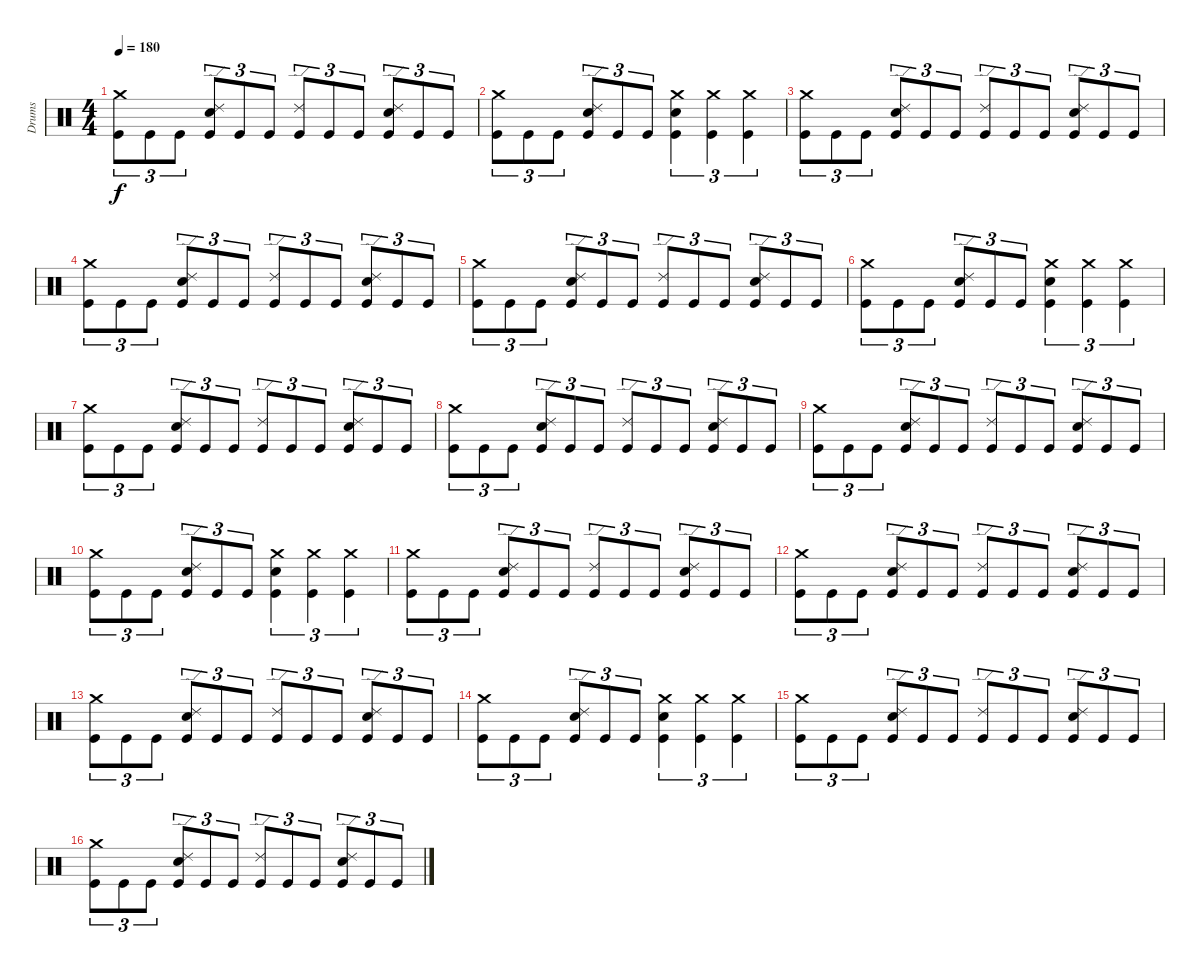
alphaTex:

\track ("Drums" "Drums") {instrument percussion}
\staff {score}
\articulation defaults
\ts (4 4)
\tempo 180
\clef neutral
\ks c
("Crash medium (hit)" "Kick (hit)").8{tu (3 2) dy f} "Kick (hit)".8{tu (3 2)} "Kick (hit)".8{tu (3 2)} ("Ride (edge) 2" "Snare (hit) 2" "Kick (hit)").8{tu (3 2)} "Kick (hit)".8{tu (3 2)} "Kick (hit)".8{tu (3 2)} ("Ride (edge) 2" "Kick (hit)").8{tu (3 2)} "Kick (hit)".8{tu (3 2)} "Kick (hit)".8{tu (3 2)} ("Ride (edge) 2" "Snare (hit) 2" "Kick (hit)").8{tu (3 2)} "Kick (hit)".8{tu (3 2)} "Kick (hit)".8{tu (3 2)} |
("Crash medium (hit)" "Kick (hit)").8{tu (3 2)} "Kick (hit)".8{tu (3 2)} "Kick (hit)".8{tu (3 2)} ("Ride (edge) 2" "Snare (hit) 2" "Kick (hit)").8{tu (3 2)} "Kick (hit)".8{tu (3 2)} "Kick (hit)".8{tu (3 2)} ("Crash medium (hit)" "Snare (hit) 2" "Kick (hit)").4{tu (3 2)} ("Crash medium (hit)" "Kick (hit)").4{tu (3 2)} ("Crash medium (hit)" "Kick (hit)").4{tu (3 2)} |
("Crash medium (hit)" "Kick (hit)").8{tu (3 2)} "Kick (hit)".8{tu (3 2)} "Kick (hit)".8{tu (3 2)} ("Ride (edge) 2" "Snare (hit) 2" "Kick (hit)").8{tu (3 2)} "Kick (hit)".8{tu (3 2)} "Kick (hit)".8{tu (3 2)} ("Ride (edge) 2" "Kick (hit)").8{tu (3 2)} "Kick (hit)".8{tu (3 2)} "Kick (hit)".8{tu (3 2)} ("Ride (edge) 2" "Snare (hit) 2" "Kick (hit)").8{tu (3 2)} "Kick (hit)".8{tu (3 2)} "Kick (hit)".8{tu (3 2)} |
("Crash medium (hit)" "Kick (hit)").8{tu (3 2)} "Kick (hit)".8{tu (3 2)} "Kick (hit)".8{tu (3 2)} ("Ride (edge) 2" "Snare (hit) 2" "Kick (hit)").8{tu (3 2)} "Kick (hit)".8{tu (3 2)} "Kick (hit)".8{tu (3 2)} ("Ride (edge) 2" "Kick (hit)").8{tu (3 2)} "Kick (hit)".8{tu (3 2)} "Kick (hit)".8{tu (3 2)} ("Ride (edge) 2" "Snare (hit) 2" "Kick (hit)").8{tu (3 2)} "Kick (hit)".8{tu (3 2)} "Kick (hit)".8{tu (3 2)} |
("Crash medium (hit)" "Kick (hit)").8{tu (3 2)} "Kick (hit)".8{tu (3 2)} "Kick (hit)".8{tu (3 2)} ("Ride (edge) 2" "Snare (hit) 2" "Kick (hit)").8{tu (3 2)} "Kick (hit)".8{tu (3 2)} "Kick (hit)".8{tu (3 2)} ("Ride (edge) 2" "Kick (hit)").8{tu (3 2)} "Kick (hit)".8{tu (3 2)} "Kick (hit)".8{tu (3 2)} ("Ride (edge) 2" "Snare (hit) 2" "Kick (hit)").8{tu (3 2)} "Kick (hit)".8{tu (3 2)} "Kick (hit)".8{tu (3 2)} |
("Crash medium (hit)" "Kick (hit)").8{tu (3 2)} "Kick (hit)".8{tu (3 2)} "Kick (hit)".8{tu (3 2)} ("Ride (edge) 2" "Snare (hit) 2" "Kick (hit)").8{tu (3 2)} "Kick (hit)".8{tu (3 2)} "Kick (hit)".8{tu (3 2)} ("Crash medium (hit)" "Snare (hit) 2" "Kick (hit)").4{tu (3 2)} ("Crash medium (hit)" "Kick (hit)").4{tu (3 2)} ("Crash medium (hit)" "Kick (hit)").4{tu (3 2)} |
("Crash medium (hit)" "Kick (hit)").8{tu (3 2)} "Kick (hit)".8{tu (3 2)} "Kick (hit)".8{tu (3 2)} ("Ride (edge) 2" "Snare (hit) 2" "Kick (hit)").8{tu (3 2)} "Kick (hit)".8{tu (3 2)} "Kick (hit)".8{tu (3 2)} ("Ride (edge) 2" "Kick (hit)").8{tu (3 2)} "Kick (hit)".8{tu (3 2)} "Kick (hit)".8{tu (3 2)} ("Ride (edge) 2" "Snare (hit) 2" "Kick (hit)").8{tu (3 2)} "Kick (hit)".8{tu (3 2)} "Kick (hit)".8{tu (3 2)} |
("Crash medium (hit)" "Kick (hit)").8{tu (3 2)} "Kick (hit)".8{tu (3 2)} "Kick (hit)".8{tu (3 2)} ("Ride (edge) 2" "Snare (hit) 2" "Kick (hit)").8{tu (3 2)} "Kick (hit)".8{tu (3 2)} "Kick (hit)".8{tu (3 2)} ("Ride (edge) 2" "Kick (hit)").8{tu (3 2)} "Kick (hit)".8{tu (3 2)} "Kick (hit)".8{tu (3 2)} ("Ride (edge) 2" "Snare (hit) 2" "Kick (hit)").8{tu (3 2)} "Kick (hit)".8{tu (3 2)} "Kick (hit)".8{tu (3 2)} |
("Crash medium (hit)" "Kick (hit)").8{tu (3 2)} "Kick (hit)".8{tu (3 2)} "Kick (hit)".8{tu (3 2)} ("Ride (edge) 2" "Snare (hit) 2" "Kick (hit)").8{tu (3 2)} "Kick (hit)".8{tu (3 2)} "Kick (hit)".8{tu (3 2)} ("Ride (edge) 2" "Kick (hit)").8{tu (3 2)} "Kick (hit)".8{tu (3 2)} "Kick (hit)".8{tu (3 2)} ("Ride (edge) 2" "Snare (hit) 2" "Kick (hit)").8{tu (3 2)} "Kick (hit)".8{tu (3 2)} "Kick (hit)".8{tu (3 2)} |
("Crash medium (hit)" "Kick (hit)").8{tu (3 2)} "Kick (hit)".8{tu (3 2)} "Kick (hit)".8{tu (3 2)} ("Ride (edge) 2" "Snare (hit) 2" "Kick (hit)").8{tu (3 2)} "Kick (hit)".8{tu (3 2)} "Kick (hit)".8{tu (3 2)} ("Crash medium (hit)" "Snare (hit) 2" "Kick (hit)").4{tu (3 2)} ("Crash medium (hit)" "Kick (hit)").4{tu (3 2)} ("Crash medium (hit)" "Kick (hit)").4{tu (3 2)} |
("Crash medium (hit)" "Kick (hit)").8{tu (3 2)} "Kick (hit)".8{tu (3 2)} "Kick (hit)".8{tu (3 2)} ("Ride (edge) 2" "Snare (hit) 2" "Kick (hit)").8{tu (3 2)} "Kick (hit)".8{tu (3 2)} "Kick (hit)".8{tu (3 2)} ("Ride (edge) 2" "Kick (hit)").8{tu (3 2)} "Kick (hit)".8{tu (3 2)} "Kick (hit)".8{tu (3 2)} ("Ride (edge) 2" "Snare (hit) 2" "Kick (hit)").8{tu (3 2)} "Kick (hit)".8{tu (3 2)} "Kick (hit)".8{tu (3 2)} |
("Crash medium (hit)" "Kick (hit)").8{tu (3 2)} "Kick (hit)".8{tu (3 2)} "Kick (hit)".8{tu (3 2)} ("Ride (edge) 2" "Snare (hit) 2" "Kick (hit)").8{tu (3 2)} "Kick (hit)".8{tu (3 2)} "Kick (hit)".8{tu (3 2)} ("Ride (edge) 2" "Kick (hit)").8{tu (3 2)} "Kick (hit)".8{tu (3 2)} "Kick (hit)".8{tu (3 2)} ("Ride (edge) 2" "Snare (hit) 2" "Kick (hit)").8{tu (3 2)} "Kick (hit)".8{tu (3 2)} "Kick (hit)".8{tu (3 2)} |
("Crash medium (hit)" "Kick (hit)").8{tu (3 2)} "Kick (hit)".8{tu (3 2)} "Kick (hit)".8{tu (3 2)} ("Ride (edge) 2" "Snare (hit) 2" "Kick (hit)").8{tu (3 2)} "Kick (hit)".8{tu (3 2)} "Kick (hit)".8{tu (3 2)} ("Ride (edge) 2" "Kick (hit)").8{tu (3 2)} "Kick (hit)".8{tu (3 2)} "Kick (hit)".8{tu (3 2)} ("Ride (edge) 2" "Snare (hit) 2" "Kick (hit)").8{tu (3 2)} "Kick (hit)".8{tu (3 2)} "Kick (hit)".8{tu (3 2)} |
("Crash medium (hit)" "Kick (hit)").8{tu (3 2)} "Kick (hit)".8{tu (3 2)} "Kick (hit)".8{tu (3 2)} ("Ride (edge) 2" "Snare (hit) 2" "Kick (hit)").8{tu (3 2)} "Kick (hit)".8{tu (3 2)} "Kick (hit)".8{tu (3 2)} ("Crash medium (hit)" "Snare (hit) 2" "Kick (hit)").4{tu (3 2)} ("Crash medium (hit)" "Kick (hit)").4{tu (3 2)} ("Crash medium (hit)" "Kick (hit)").4{tu (3 2)} |
("Crash medium (hit)" "Kick (hit)").8{tu (3 2)} "Kick (hit)".8{tu (3 2)} "Kick (hit)".8{tu (3 2)} ("Ride (edge) 2" "Snare (hit) 2" "Kick (hit)").8{tu (3 2)} "Kick (hit)".8{tu (3 2)} "Kick (hit)".8{tu (3 2)} ("Ride (edge) 2" "Kick (hit)").8{tu (3 2)} "Kick (hit)".8{tu (3 2)} "Kick (hit)".8{tu (3 2)} ("Ride (edge) 2" "Snare (hit) 2" "Kick (hit)").8{tu (3 2)} "Kick (hit)".8{tu (3 2)} "Kick (hit)".8{tu (3 2)} |
("Crash medium (hit)" "Kick (hit)").8{tu (3 2)} "Kick (hit)".8{tu (3 2)} "Kick (hit)".8{tu (3 2)} ("Ride (edge) 2" "Snare (hit) 2" "Kick (hit)").8{tu (3 2)} "Kick (hit)".8{tu (3 2)} "Kick (hit)".8{tu (3 2)} ("Ride (edge) 2" "Kick (hit)").8{tu (3 2)} "Kick (hit)".8{tu (3 2)} "Kick (hit)".8{tu (3 2)} ("Ride (edge) 2" "Snare (hit) 2" "Kick (hit)").8{tu (3 2)} "Kick (hit)".8{tu (3 2)} "Kick (hit)".8{tu (3 2)}
